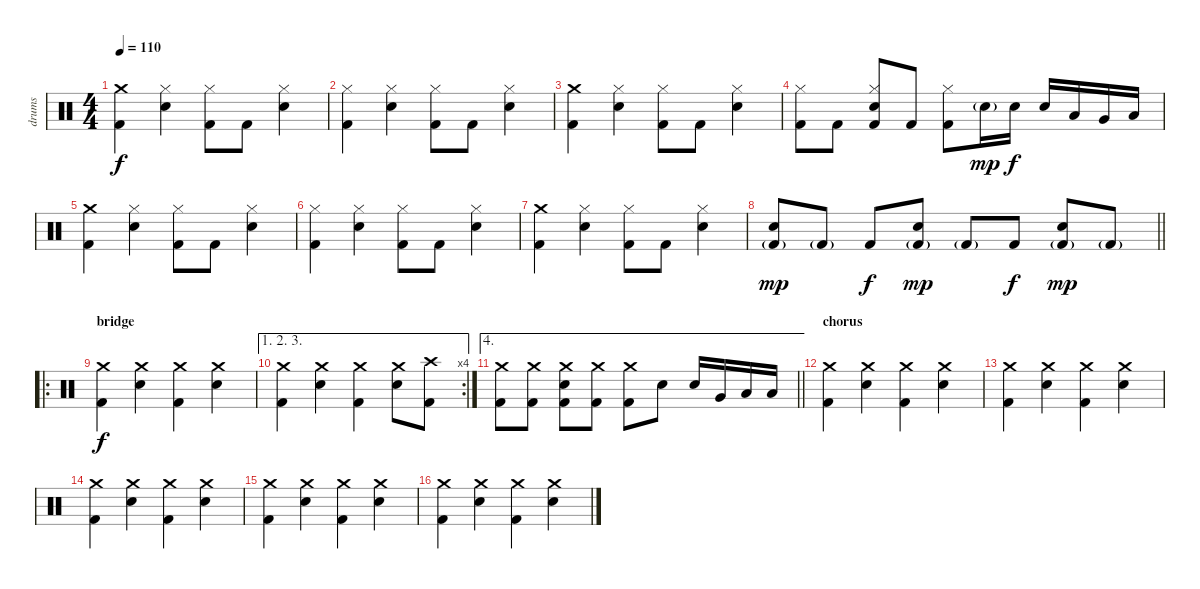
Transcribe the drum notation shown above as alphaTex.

\track ("drums" "drums") {instrument percussion}
\staff {score}
\articulation defaults
\ts (4 4)
\tempo 110
\clef neutral
\ks c
("Crash medium (hit)" "Kick (hit) 2").4{dy f} ("Hi-Hat (closed)" "Electric Snare (hit)").4 ("Hi-Hat (closed)" "Kick (hit) 2").8 "Kick (hit) 2".8 ("Hi-Hat (closed)" "Electric Snare (hit)").4 |
("Hi-Hat (closed)" "Kick (hit) 2").4 ("Hi-Hat (closed)" "Electric Snare (hit)").4 ("Hi-Hat (closed)" "Kick (hit) 2").8 "Kick (hit) 2".8 ("Hi-Hat (closed)" "Electric Snare (hit)").4 |
("Crash medium (hit)" "Kick (hit) 2").4 ("Hi-Hat (closed)" "Electric Snare (hit)").4 ("Hi-Hat (closed)" "Kick (hit) 2").8 "Kick (hit) 2".8 ("Hi-Hat (closed)" "Electric Snare (hit)").4 |
("Hi-Hat (closed)" "Kick (hit) 2").8 "Kick (hit) 2".8 ("Hi-Hat (closed)" "Electric Snare (hit)" "Kick (hit) 2").8 "Kick (hit) 2".8 ("Hi-Hat (closed)" "Kick (hit) 2").8 "Electric Snare (hit)"{g}.16{dy mp} "Electric Snare (hit)".16{dy f} "Electric Snare (hit)".16 "Low Tom (hit)".16 "Very Low Tom (hit)".16 "Low Floor Tom (hit)".16 |
("Crash medium (hit)" "Kick (hit) 2").4 ("Hi-Hat (closed)" "Electric Snare (hit)").4 ("Hi-Hat (closed)" "Kick (hit) 2").8 "Kick (hit) 2".8 ("Hi-Hat (closed)" "Electric Snare (hit)").4 |
("Hi-Hat (closed)" "Kick (hit) 2").4 ("Hi-Hat (closed)" "Electric Snare (hit)").4 ("Hi-Hat (closed)" "Kick (hit) 2").8 "Kick (hit) 2".8 ("Hi-Hat (closed)" "Electric Snare (hit)").4 |
("Crash medium (hit)" "Kick (hit) 2").4 ("Hi-Hat (closed)" "Electric Snare (hit)").4 ("Hi-Hat (closed)" "Kick (hit) 2").8 "Kick (hit) 2".8 ("Hi-Hat (closed)" "Electric Snare (hit)").4 |
\barLineRight lightlight
("Electric Snare (hit)" "Kick (hit) 2"{g}).8{dy mp} "Kick (hit) 2"{g}.8 "Kick (hit) 2".8{dy f} ("Electric Snare (hit)" "Kick (hit) 2"{g}).8{dy mp} "Kick (hit) 2"{g}.8 "Kick (hit) 2".8{dy f} ("Electric Snare (hit)" "Kick (hit) 2"{g}).8{dy mp} "Kick (hit) 2"{g}.8 |
\ro
\section ("" "bridge")
("Crash medium (hit)" "Kick (hit) 2").4{dy f} ("Crash medium (hit)" "Electric Snare (hit)").4 ("Crash medium (hit)" "Kick (hit) 2").4 ("Crash medium (hit)" "Electric Snare (hit)").4 |
\ae (1 2 3)
\rc 4
("Crash medium (hit)" "Kick (hit) 2").4 ("Crash medium (hit)" "Electric Snare (hit)").4 ("Crash medium (hit)" "Kick (hit) 2").4 ("Crash medium (hit)" "Electric Snare (hit)").8 ("Crash high (hit)" "Kick (hit) 2").8 |
\ae 4
\barLineRight lightlight
("Crash medium (hit)" "Kick (hit) 2").8 ("Crash medium (hit)" "Kick (hit) 2").8 ("Crash medium (hit)" "Electric Snare (hit)" "Kick (hit) 2").8 ("Crash medium (hit)" "Kick (hit) 2").8 ("Crash medium (hit)" "Kick (hit) 2").8 "Electric Snare (hit)".8 "Electric Snare (hit)".16 "Very Low Tom (hit)".16 "Low Floor Tom (hit)".16 "Low Floor Tom (hit)".16 |
\section ("" "chorus")
("Crash medium (hit)" "Kick (hit) 2").4 ("Crash medium (hit)" "Electric Snare (hit)").4 ("Crash medium (hit)" "Kick (hit) 2").4 ("Crash medium (hit)" "Electric Snare (hit)").4 |
("Crash medium (hit)" "Kick (hit) 2").4 ("Crash medium (hit)" "Electric Snare (hit)").4 ("Crash medium (hit)" "Kick (hit) 2").4 ("Crash medium (hit)" "Electric Snare (hit)").4 |
("Crash medium (hit)" "Kick (hit) 2").4 ("Crash medium (hit)" "Electric Snare (hit)").4 ("Crash medium (hit)" "Kick (hit) 2").4 ("Crash medium (hit)" "Electric Snare (hit)").4 |
("Crash medium (hit)" "Kick (hit) 2").4 ("Crash medium (hit)" "Electric Snare (hit)").4 ("Crash medium (hit)" "Kick (hit) 2").4 ("Crash medium (hit)" "Electric Snare (hit)").4 |
("Crash medium (hit)" "Kick (hit) 2").4 ("Crash medium (hit)" "Electric Snare (hit)").4 ("Crash medium (hit)" "Kick (hit) 2").4 ("Crash medium (hit)" "Electric Snare (hit)").4
